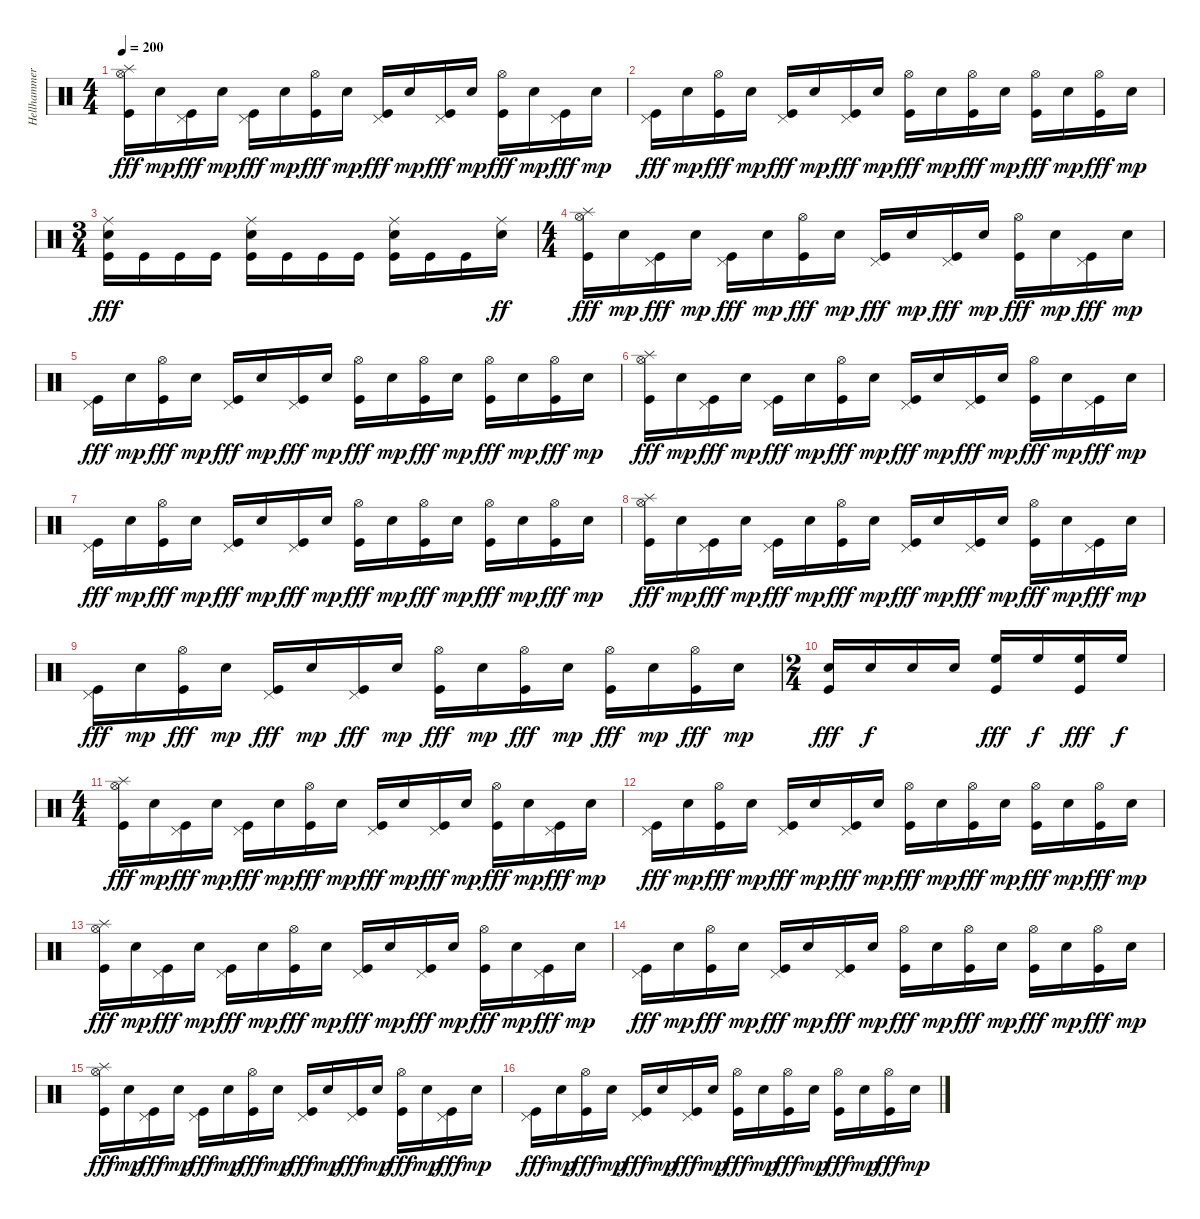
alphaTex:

\track ("Hellhammer" "Hellhammer") {instrument percussion}
\staff {score}
\articulation defaults
\ts (4 4)
\tempo 200
\clef neutral
\ks c
("Splash (hit)" "Hi-Hat (open)" "Kick (hit)").16{dy fff} "Electric Snare (hit)".16{dy mp} ("Pedal Hi-Hat (hit)" "Kick (hit)").16{dy fff} "Electric Snare (hit)".16{dy mp} ("Pedal Hi-Hat (hit)" "Kick (hit)").16{dy fff} "Electric Snare (hit)".16{dy mp} ("Hi-Hat (open)" "Kick (hit)").16{dy fff} "Electric Snare (hit)".16{dy mp} ("Pedal Hi-Hat (hit)" "Kick (hit)").16{dy fff} "Electric Snare (hit)".16{dy mp} ("Pedal Hi-Hat (hit)" "Kick (hit)").16{dy fff} "Electric Snare (hit)".16{dy mp} ("Hi-Hat (open)" "Kick (hit)").16{dy fff} "Electric Snare (hit)".16{dy mp} ("Pedal Hi-Hat (hit)" "Kick (hit)").16{dy fff} "Electric Snare (hit)".16{dy mp} |
("Pedal Hi-Hat (hit)" "Kick (hit)").16{dy fff} "Electric Snare (hit)".16{dy mp} ("Hi-Hat (open)" "Kick (hit)").16{dy fff} "Electric Snare (hit)".16{dy mp} ("Pedal Hi-Hat (hit)" "Kick (hit)").16{dy fff} "Electric Snare (hit)".16{dy mp} ("Pedal Hi-Hat (hit)" "Kick (hit)").16{dy fff} "Electric Snare (hit)".16{dy mp} ("Hi-Hat (open)" "Kick (hit)").16{dy fff} "Electric Snare (hit)".16{dy mp} ("Hi-Hat (open)" "Kick (hit)").16{dy fff} "Electric Snare (hit)".16{dy mp} ("Hi-Hat (open)" "Kick (hit)").16{dy fff} "Electric Snare (hit)".16{dy mp} ("Hi-Hat (open)" "Kick (hit)").16{dy fff} "Electric Snare (hit)".16{dy mp} |
\ts (3 4)
("Ride (middle)" "Electric Snare (hit)" "Kick (hit)").16{dy fff} "Kick (hit)".16 "Kick (hit)".16 "Kick (hit)".16 ("Ride (middle)" "Electric Snare (hit)" "Kick (hit)").16 "Kick (hit)".16 "Kick (hit)".16 "Kick (hit)".16 ("Ride (middle)" "Electric Snare (hit)" "Kick (hit)").16 "Kick (hit)".16 "Kick (hit)".16 ("Ride (middle)" "Electric Snare (hit)").16{dy ff} |
\ts (4 4)
("Splash (hit)" "Hi-Hat (open)" "Kick (hit)").16{dy fff} "Electric Snare (hit)".16{dy mp} ("Pedal Hi-Hat (hit)" "Kick (hit)").16{dy fff} "Electric Snare (hit)".16{dy mp} ("Pedal Hi-Hat (hit)" "Kick (hit)").16{dy fff} "Electric Snare (hit)".16{dy mp} ("Hi-Hat (open)" "Kick (hit)").16{dy fff} "Electric Snare (hit)".16{dy mp} ("Pedal Hi-Hat (hit)" "Kick (hit)").16{dy fff} "Electric Snare (hit)".16{dy mp} ("Pedal Hi-Hat (hit)" "Kick (hit)").16{dy fff} "Electric Snare (hit)".16{dy mp} ("Hi-Hat (open)" "Kick (hit)").16{dy fff} "Electric Snare (hit)".16{dy mp} ("Pedal Hi-Hat (hit)" "Kick (hit)").16{dy fff} "Electric Snare (hit)".16{dy mp} |
("Pedal Hi-Hat (hit)" "Kick (hit)").16{dy fff} "Electric Snare (hit)".16{dy mp} ("Hi-Hat (open)" "Kick (hit)").16{dy fff} "Electric Snare (hit)".16{dy mp} ("Pedal Hi-Hat (hit)" "Kick (hit)").16{dy fff} "Electric Snare (hit)".16{dy mp} ("Pedal Hi-Hat (hit)" "Kick (hit)").16{dy fff} "Electric Snare (hit)".16{dy mp} ("Hi-Hat (open)" "Kick (hit)").16{dy fff} "Electric Snare (hit)".16{dy mp} ("Hi-Hat (open)" "Kick (hit)").16{dy fff} "Electric Snare (hit)".16{dy mp} ("Hi-Hat (open)" "Kick (hit)").16{dy fff} "Electric Snare (hit)".16{dy mp} ("Hi-Hat (open)" "Kick (hit)").16{dy fff} "Electric Snare (hit)".16{dy mp} |
("Splash (hit)" "Hi-Hat (open)" "Kick (hit)").16{dy fff} "Electric Snare (hit)".16{dy mp} ("Pedal Hi-Hat (hit)" "Kick (hit)").16{dy fff} "Electric Snare (hit)".16{dy mp} ("Pedal Hi-Hat (hit)" "Kick (hit)").16{dy fff} "Electric Snare (hit)".16{dy mp} ("Hi-Hat (open)" "Kick (hit)").16{dy fff} "Electric Snare (hit)".16{dy mp} ("Pedal Hi-Hat (hit)" "Kick (hit)").16{dy fff} "Electric Snare (hit)".16{dy mp} ("Pedal Hi-Hat (hit)" "Kick (hit)").16{dy fff} "Electric Snare (hit)".16{dy mp} ("Hi-Hat (open)" "Kick (hit)").16{dy fff} "Electric Snare (hit)".16{dy mp} ("Pedal Hi-Hat (hit)" "Kick (hit)").16{dy fff} "Electric Snare (hit)".16{dy mp} |
("Pedal Hi-Hat (hit)" "Kick (hit)").16{dy fff} "Electric Snare (hit)".16{dy mp} ("Hi-Hat (open)" "Kick (hit)").16{dy fff} "Electric Snare (hit)".16{dy mp} ("Pedal Hi-Hat (hit)" "Kick (hit)").16{dy fff} "Electric Snare (hit)".16{dy mp} ("Pedal Hi-Hat (hit)" "Kick (hit)").16{dy fff} "Electric Snare (hit)".16{dy mp} ("Hi-Hat (open)" "Kick (hit)").16{dy fff} "Electric Snare (hit)".16{dy mp} ("Hi-Hat (open)" "Kick (hit)").16{dy fff} "Electric Snare (hit)".16{dy mp} ("Hi-Hat (open)" "Kick (hit)").16{dy fff} "Electric Snare (hit)".16{dy mp} ("Hi-Hat (open)" "Kick (hit)").16{dy fff} "Electric Snare (hit)".16{dy mp} |
("Splash (hit)" "Hi-Hat (open)" "Kick (hit)").16{dy fff} "Electric Snare (hit)".16{dy mp} ("Pedal Hi-Hat (hit)" "Kick (hit)").16{dy fff} "Electric Snare (hit)".16{dy mp} ("Pedal Hi-Hat (hit)" "Kick (hit)").16{dy fff} "Electric Snare (hit)".16{dy mp} ("Hi-Hat (open)" "Kick (hit)").16{dy fff} "Electric Snare (hit)".16{dy mp} ("Pedal Hi-Hat (hit)" "Kick (hit)").16{dy fff} "Electric Snare (hit)".16{dy mp} ("Pedal Hi-Hat (hit)" "Kick (hit)").16{dy fff} "Electric Snare (hit)".16{dy mp} ("Hi-Hat (open)" "Kick (hit)").16{dy fff} "Electric Snare (hit)".16{dy mp} ("Pedal Hi-Hat (hit)" "Kick (hit)").16{dy fff} "Electric Snare (hit)".16{dy mp} |
("Pedal Hi-Hat (hit)" "Kick (hit)").16{dy fff} "Electric Snare (hit)".16{dy mp} ("Hi-Hat (open)" "Kick (hit)").16{dy fff} "Electric Snare (hit)".16{dy mp} ("Pedal Hi-Hat (hit)" "Kick (hit)").16{dy fff} "Electric Snare (hit)".16{dy mp} ("Pedal Hi-Hat (hit)" "Kick (hit)").16{dy fff} "Electric Snare (hit)".16{dy mp} ("Hi-Hat (open)" "Kick (hit)").16{dy fff} "Electric Snare (hit)".16{dy mp} ("Hi-Hat (open)" "Kick (hit)").16{dy fff} "Electric Snare (hit)".16{dy mp} ("Hi-Hat (open)" "Kick (hit)").16{dy fff} "Electric Snare (hit)".16{dy mp} ("Hi-Hat (open)" "Kick (hit)").16{dy fff} "Electric Snare (hit)".16{dy mp} |
\ts (2 4)
("Electric Snare (hit)" "Kick (hit)").16{dy fff} "Electric Snare (hit)".16{dy f} "Electric Snare (hit)".16 "Electric Snare (hit)".16 ("High Floor Tom (hit)" "Kick (hit)").16{dy fff} "High Floor Tom (hit)".16{dy f} ("High Floor Tom (hit)" "Kick (hit)").16{dy fff} "High Floor Tom (hit)".16{dy f} |
\ts (4 4)
("Splash (hit)" "Hi-Hat (open)" "Kick (hit)").16{dy fff} "Electric Snare (hit)".16{dy mp} ("Pedal Hi-Hat (hit)" "Kick (hit)").16{dy fff} "Electric Snare (hit)".16{dy mp} ("Pedal Hi-Hat (hit)" "Kick (hit)").16{dy fff} "Electric Snare (hit)".16{dy mp} ("Hi-Hat (open)" "Kick (hit)").16{dy fff} "Electric Snare (hit)".16{dy mp} ("Pedal Hi-Hat (hit)" "Kick (hit)").16{dy fff} "Electric Snare (hit)".16{dy mp} ("Pedal Hi-Hat (hit)" "Kick (hit)").16{dy fff} "Electric Snare (hit)".16{dy mp} ("Hi-Hat (open)" "Kick (hit)").16{dy fff} "Electric Snare (hit)".16{dy mp} ("Pedal Hi-Hat (hit)" "Kick (hit)").16{dy fff} "Electric Snare (hit)".16{dy mp} |
("Pedal Hi-Hat (hit)" "Kick (hit)").16{dy fff} "Electric Snare (hit)".16{dy mp} ("Hi-Hat (open)" "Kick (hit)").16{dy fff} "Electric Snare (hit)".16{dy mp} ("Pedal Hi-Hat (hit)" "Kick (hit)").16{dy fff} "Electric Snare (hit)".16{dy mp} ("Pedal Hi-Hat (hit)" "Kick (hit)").16{dy fff} "Electric Snare (hit)".16{dy mp} ("Hi-Hat (open)" "Kick (hit)").16{dy fff} "Electric Snare (hit)".16{dy mp} ("Hi-Hat (open)" "Kick (hit)").16{dy fff} "Electric Snare (hit)".16{dy mp} ("Hi-Hat (open)" "Kick (hit)").16{dy fff} "Electric Snare (hit)".16{dy mp} ("Hi-Hat (open)" "Kick (hit)").16{dy fff} "Electric Snare (hit)".16{dy mp} |
("Splash (hit)" "Hi-Hat (open)" "Kick (hit)").16{dy fff} "Electric Snare (hit)".16{dy mp} ("Pedal Hi-Hat (hit)" "Kick (hit)").16{dy fff} "Electric Snare (hit)".16{dy mp} ("Pedal Hi-Hat (hit)" "Kick (hit)").16{dy fff} "Electric Snare (hit)".16{dy mp} ("Hi-Hat (open)" "Kick (hit)").16{dy fff} "Electric Snare (hit)".16{dy mp} ("Pedal Hi-Hat (hit)" "Kick (hit)").16{dy fff} "Electric Snare (hit)".16{dy mp} ("Pedal Hi-Hat (hit)" "Kick (hit)").16{dy fff} "Electric Snare (hit)".16{dy mp} ("Hi-Hat (open)" "Kick (hit)").16{dy fff} "Electric Snare (hit)".16{dy mp} ("Pedal Hi-Hat (hit)" "Kick (hit)").16{dy fff} "Electric Snare (hit)".16{dy mp} |
("Pedal Hi-Hat (hit)" "Kick (hit)").16{dy fff} "Electric Snare (hit)".16{dy mp} ("Hi-Hat (open)" "Kick (hit)").16{dy fff} "Electric Snare (hit)".16{dy mp} ("Pedal Hi-Hat (hit)" "Kick (hit)").16{dy fff} "Electric Snare (hit)".16{dy mp} ("Pedal Hi-Hat (hit)" "Kick (hit)").16{dy fff} "Electric Snare (hit)".16{dy mp} ("Hi-Hat (open)" "Kick (hit)").16{dy fff} "Electric Snare (hit)".16{dy mp} ("Hi-Hat (open)" "Kick (hit)").16{dy fff} "Electric Snare (hit)".16{dy mp} ("Hi-Hat (open)" "Kick (hit)").16{dy fff} "Electric Snare (hit)".16{dy mp} ("Hi-Hat (open)" "Kick (hit)").16{dy fff} "Electric Snare (hit)".16{dy mp} |
("Splash (hit)" "Hi-Hat (open)" "Kick (hit)").16{dy fff} "Electric Snare (hit)".16{dy mp} ("Pedal Hi-Hat (hit)" "Kick (hit)").16{dy fff} "Electric Snare (hit)".16{dy mp} ("Pedal Hi-Hat (hit)" "Kick (hit)").16{dy fff} "Electric Snare (hit)".16{dy mp} ("Hi-Hat (open)" "Kick (hit)").16{dy fff} "Electric Snare (hit)".16{dy mp} ("Pedal Hi-Hat (hit)" "Kick (hit)").16{dy fff} "Electric Snare (hit)".16{dy mp} ("Pedal Hi-Hat (hit)" "Kick (hit)").16{dy fff} "Electric Snare (hit)".16{dy mp} ("Hi-Hat (open)" "Kick (hit)").16{dy fff} "Electric Snare (hit)".16{dy mp} ("Pedal Hi-Hat (hit)" "Kick (hit)").16{dy fff} "Electric Snare (hit)".16{dy mp} |
("Pedal Hi-Hat (hit)" "Kick (hit)").16{dy fff} "Electric Snare (hit)".16{dy mp} ("Hi-Hat (open)" "Kick (hit)").16{dy fff} "Electric Snare (hit)".16{dy mp} ("Pedal Hi-Hat (hit)" "Kick (hit)").16{dy fff} "Electric Snare (hit)".16{dy mp} ("Pedal Hi-Hat (hit)" "Kick (hit)").16{dy fff} "Electric Snare (hit)".16{dy mp} ("Hi-Hat (open)" "Kick (hit)").16{dy fff} "Electric Snare (hit)".16{dy mp} ("Hi-Hat (open)" "Kick (hit)").16{dy fff} "Electric Snare (hit)".16{dy mp} ("Hi-Hat (open)" "Kick (hit)").16{dy fff} "Electric Snare (hit)".16{dy mp} ("Hi-Hat (open)" "Kick (hit)").16{dy fff} "Electric Snare (hit)".16{dy mp}
